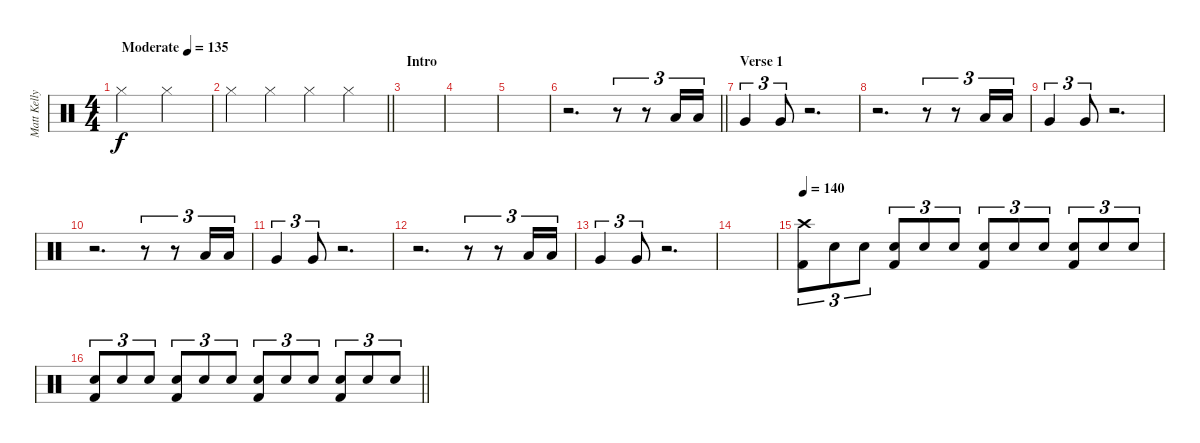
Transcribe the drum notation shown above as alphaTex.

\track ("Matt Kelly (Drums)" "Matt Kelly") {instrument percussion}
\staff {score}
\articulation defaults
\ts (4 4)
\tempo (135 "Moderate")
\clef neutral
\ks c "Hi-Hat (closed)".2{dy f} "Hi-Hat (closed)".2
|
\barLineRight lightlight "Hi-Hat (closed)".4 "Hi-Hat (closed)".4 "Hi-Hat (closed)".4 "Hi-Hat (closed)".4
|
\section ("" "Intro")
|
|
|
\barLineRight lightlight
r.2{d} r.8{tu (3 2)} r.8{tu (3 2)} "Low Tom (hit)".16{tu (3 2)} "Low Tom (hit)".16{tu (3 2)} |
\section ("" "Verse 1")
"Very Low Tom (hit)".4{tu (3 2)} "Very Low Tom (hit)".8{tu (3 2)} r.2{d} |
r.2{d} r.8{tu (3 2)} r.8{tu (3 2)} "Low Tom (hit)".16{tu (3 2)} "Low Tom (hit)".16{tu (3 2)} |
"Very Low Tom (hit)".4{tu (3 2)} "Very Low Tom (hit)".8{tu (3 2)} r.2{d} |
r.2{d} r.8{tu (3 2)} r.8{tu (3 2)} "Low Tom (hit)".16{tu (3 2)} "Low Tom (hit)".16{tu (3 2)} |
"Very Low Tom (hit)".4{tu (3 2)} "Very Low Tom (hit)".8{tu (3 2)} r.2{d} |
r.2{d} r.8{tu (3 2)} r.8{tu (3 2)} "Low Tom (hit)".16{tu (3 2)} "Low Tom (hit)".16{tu (3 2)} |
"Very Low Tom (hit)".4{tu (3 2)} "Very Low Tom (hit)".8{tu (3 2)} r.2{d} |
|
\tempo 140
("Crash high (hit)" "Kick (hit) 2").8{tu (3 2)} "Electric Snare (hit)".8{tu (3 2)} "Electric Snare (hit)".8{tu (3 2)} ("Electric Snare (hit)" "Kick (hit) 2").8{tu (3 2)} "Electric Snare (hit)".8{tu (3 2)} "Electric Snare (hit)".8{tu (3 2)} ("Electric Snare (hit)" "Kick (hit) 2").8{tu (3 2)} "Electric Snare (hit)".8{tu (3 2)} "Electric Snare (hit)".8{tu (3 2)} ("Electric Snare (hit)" "Kick (hit) 2").8{tu (3 2)} "Electric Snare (hit)".8{tu (3 2)} "Electric Snare (hit)".8{tu (3 2)} |
\barLineRight lightlight
("Electric Snare (hit)" "Kick (hit) 2").8{tu (3 2)} "Electric Snare (hit)".8{tu (3 2)} "Electric Snare (hit)".8{tu (3 2)} ("Electric Snare (hit)" "Kick (hit) 2").8{tu (3 2)} "Electric Snare (hit)".8{tu (3 2)} "Electric Snare (hit)".8{tu (3 2)} ("Electric Snare (hit)" "Kick (hit) 2").8{tu (3 2)} "Electric Snare (hit)".8{tu (3 2)} "Electric Snare (hit)".8{tu (3 2)} ("Electric Snare (hit)" "Kick (hit) 2").8{tu (3 2)} "Electric Snare (hit)".8{tu (3 2)} "Electric Snare (hit)".8{tu (3 2)}
